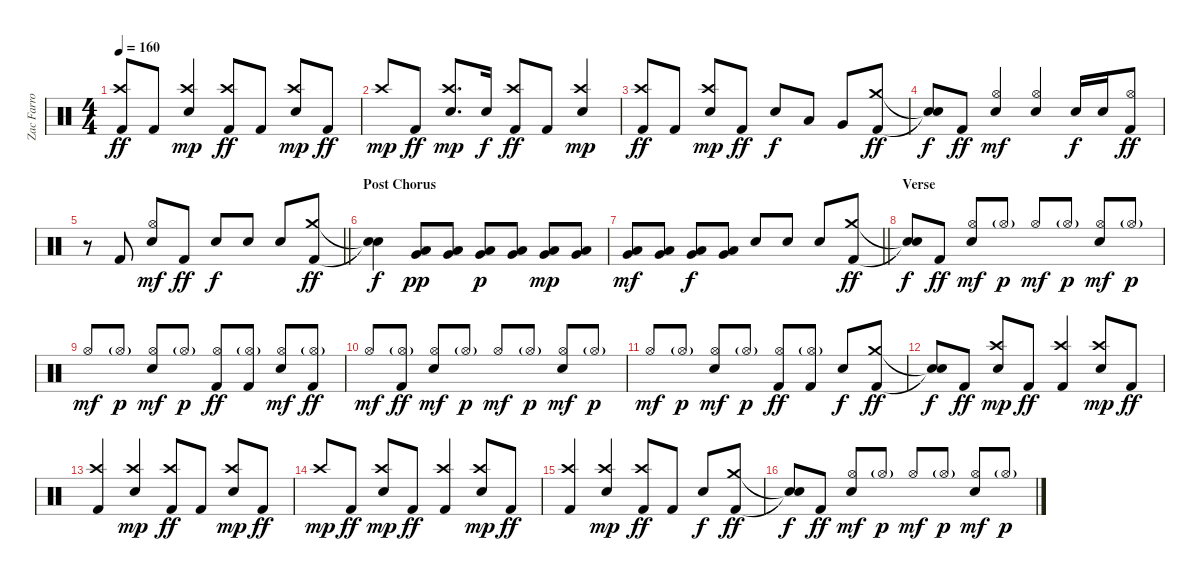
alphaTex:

\track ("Zac Farro" "Zac Farro") {instrument percussion}
\staff {score}
\articulation defaults
\ts (4 4)
\tempo 160
\clef neutral
\ks c
("Crash high (hit)" "Kick (hit) 2").8{dy ff beam Up} "Kick (hit) 2".8{beam Up} ("Crash high (hit)" "Snare (hit) 2").4{dy mp beam Up} ("Crash high (hit)" "Kick (hit) 2").8{dy ff beam Up} "Kick (hit) 2".8{beam Up} ("Crash high (hit)" "Snare (hit) 2").8{dy mp beam Up} "Kick (hit) 2".8{dy ff beam Up} |
"Crash high (hit)".8{dy mp beam Up} "Kick (hit) 2".8{dy ff beam Up} ("Crash high (hit)" "Snare (hit) 2").8{d dy mp beam Up} "Snare (hit) 2".16{dy f beam Up} ("Crash high (hit)" "Kick (hit) 2").8{dy ff beam Up} "Kick (hit) 2".8{beam Up} ("Crash high (hit)" "Snare (hit) 2").4{dy mp beam Up} |
("Crash high (hit)" "Kick (hit) 2").8{dy ff beam Up} "Kick (hit) 2".8{beam Up} ("Crash high (hit)" "Snare (hit) 2").8{dy mp beam Up} "Kick (hit) 2".8{dy ff beam Up} "Snare (hit) 2".8{dy f beam Up} "Low Tom (hit)".8{beam Up} "Very Low Tom (hit)".8{beam Up} ("Crash medium (hit)" "Kick (hit) 2").8{dy ff beam Up} |
("Snare (hit)"{t} "Snare (hit)"{t}).8{dy f beam Up} "Kick (hit) 2".8{dy ff} ("Hi-Hat (open)" "Snare (hit) 2").4{dy mf beam Up} ("Hi-Hat (open)" "Snare (hit) 2").4{beam Up} "Snare (hit) 2".16{dy f beam Up} "Snare (hit) 2".16{beam Up} ("Hi-Hat (open)" "Kick (hit) 2").8{dy ff beam Up} |
\barLineRight lightlight
r.8{beam Up} "Kick (hit) 2".8{beam Down} ("Hi-Hat (open)" "Snare (hit) 2").8{dy mf beam Up} "Kick (hit) 2".8{dy ff beam Up} "Snare (hit) 2".8{dy f beam Up} "Snare (hit) 2".8{beam Up} "Snare (hit) 2".8{beam Up} ("Crash medium (hit)" "Kick (hit) 2").8{dy ff beam Up} |
\section ("" "Post Chorus")
("Snare (hit)"{t} "Snare (hit)"{t}).4{dy f} ("Low Tom (hit)" "Very Low Tom (hit)").8{dy pp beam Up} ("Low Tom (hit)" "Very Low Tom (hit)").8{beam Up} ("Low Tom (hit)" "Very Low Tom (hit)").8{dy p beam Up} ("Low Tom (hit)" "Very Low Tom (hit)").8{beam Up} ("Low Tom (hit)" "Very Low Tom (hit)").8{dy mp} ("Low Tom (hit)" "Very Low Tom (hit)").8 |
\barLineRight lightlight
("Low Tom (hit)" "Very Low Tom (hit)").8{dy mf beam Up} ("Low Tom (hit)" "Very Low Tom (hit)").8{beam Up} ("Low Tom (hit)" "Very Low Tom (hit)").8{dy f beam Up} ("Low Tom (hit)" "Very Low Tom (hit)").8{beam Up} "Snare (hit) 2".8{beam Up} "Snare (hit) 2".8{beam Up} "Snare (hit) 2".8{beam Up} ("Crash medium (hit)" "Kick (hit) 2").8{dy ff beam Up} |
\section ("" "Verse")
("Snare (hit)"{t} "Snare (hit)"{t}).8{dy f} "Kick (hit) 2".8{dy ff} ("Hi-Hat (open)" "Snare (hit) 2").8{dy mf beam Up} "Hi-Hat (open)"{g}.8{dy p beam Up} "Hi-Hat (open)".8{dy mf beam Up} "Hi-Hat (open)"{g}.8{dy p beam Up} ("Hi-Hat (open)" "Snare (hit) 2").8{dy mf beam Up} "Hi-Hat (open)"{g}.8{dy p beam Up} |
"Hi-Hat (open)".8{dy mf beam Up} "Hi-Hat (open)"{g}.8{dy p beam Up} ("Hi-Hat (open)" "Snare (hit) 2").8{dy mf beam Up} "Hi-Hat (open)"{g}.8{dy p beam Up} ("Hi-Hat (open)" "Kick (hit) 2").8{dy ff beam Up} ("Hi-Hat (open)"{g} "Kick (hit) 2").8{beam Up} ("Hi-Hat (open)" "Snare (hit) 2").8{dy mf beam Up} ("Hi-Hat (open)"{g} "Kick (hit) 2").8{dy ff beam Up} |
"Hi-Hat (open)".8{dy mf beam Up} ("Hi-Hat (open)"{g} "Kick (hit) 2").8{dy ff beam Up} ("Hi-Hat (open)" "Snare (hit) 2").8{dy mf beam Up} "Hi-Hat (open)"{g}.8{dy p beam Up} "Hi-Hat (open)".8{dy mf beam Up} "Hi-Hat (open)"{g}.8{dy p beam Up} ("Hi-Hat (open)" "Snare (hit) 2").8{dy mf beam Up} "Hi-Hat (open)"{g}.8{dy p beam Up} |
"Hi-Hat (open)".8{dy mf beam Up} "Hi-Hat (open)"{g}.8{dy p beam Up} ("Hi-Hat (open)" "Snare (hit) 2").8{dy mf beam Up} "Hi-Hat (open)"{g}.8{dy p beam Up} ("Hi-Hat (open)" "Kick (hit) 2").8{dy ff beam Up} ("Hi-Hat (open)"{g} "Kick (hit) 2").8{beam Up} "Snare (hit) 2".8{dy f beam Up} ("Crash medium (hit)" "Kick (hit) 2").8{dy ff beam Up} |
("Snare (hit)"{t} "Snare (hit)"{t}).8{dy f beam Up} "Kick (hit) 2".8{dy ff} ("Crash high (hit)" "Snare (hit) 2").8{dy mp beam Up} "Kick (hit) 2".8{dy ff beam Up} ("Crash high (hit)" "Kick (hit) 2").4{beam Up} ("Crash high (hit)" "Snare (hit) 2").8{dy mp beam Up} "Kick (hit) 2".8{dy ff beam Up} |
("Crash high (hit)" "Kick (hit) 2").4{beam Up} ("Crash high (hit)" "Snare (hit) 2").4{dy mp beam Up} ("Crash high (hit)" "Kick (hit) 2").8{dy ff beam Up} "Kick (hit) 2".8{beam Up} ("Crash high (hit)" "Snare (hit) 2").8{dy mp beam Up} "Kick (hit) 2".8{dy ff beam Up} |
"Crash high (hit)".8{dy mp beam Up} "Kick (hit) 2".8{dy ff beam Up} ("Crash high (hit)" "Snare (hit) 2").8{dy mp beam Up} "Kick (hit) 2".8{dy ff beam Up} ("Crash high (hit)" "Kick (hit) 2").4{beam Up} ("Crash high (hit)" "Snare (hit) 2").8{dy mp beam Up} "Kick (hit) 2".8{dy ff beam Up} |
("Crash high (hit)" "Kick (hit) 2").4{beam Up} ("Crash high (hit)" "Snare (hit) 2").4{dy mp beam Up} ("Crash high (hit)" "Kick (hit) 2").8{dy ff beam Up} "Kick (hit) 2".8{beam Up} "Snare (hit) 2".8{dy f beam Up} ("Crash medium (hit)" "Kick (hit) 2").8{dy ff beam Up} |
("Snare (hit)"{t} "Snare (hit)"{t}).8{dy f} "Kick (hit) 2".8{dy ff} ("Hi-Hat (open)" "Snare (hit) 2").8{dy mf beam Up} "Hi-Hat (open)"{g}.8{dy p beam Up} "Hi-Hat (open)".8{dy mf beam Up} "Hi-Hat (open)"{g}.8{dy p beam Up} ("Hi-Hat (open)" "Snare (hit) 2").8{dy mf beam Up} "Hi-Hat (open)"{g}.8{dy p beam Up}
